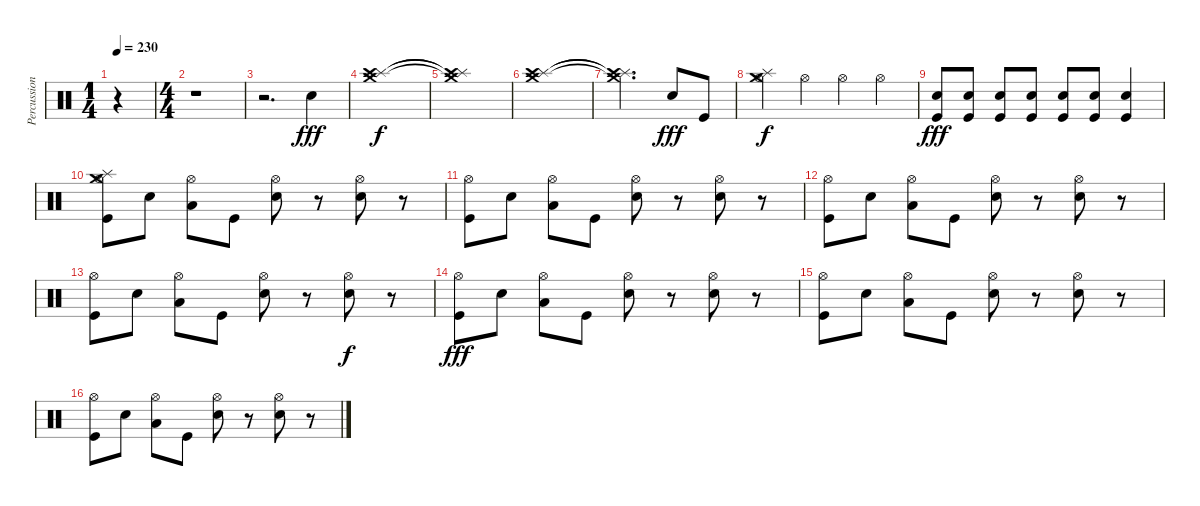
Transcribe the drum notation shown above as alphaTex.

\track ("Percussion" "Percussion") {instrument percussion}
\staff
\articulation defaults
\ts (1 4)
\tempo 230
\tempo 160
\tempo 230
\clef neutral
\ks c
r.4{dy fff} |
\ts (4 4)
r.1 |
r.2{d} "Electric Snare (hit)".4 |
("Crash medium (hit)" "Splash (hit)" "Crash high (hit)").1{dy f} |
("Crash medium (hit)"{t} "Splash (hit)"{t} "Crash high (hit)"{t}).1 |
("Crash medium (hit)" "Splash (hit)" "Crash high (hit)").1 |
("Crash medium (hit)"{t} "Splash (hit)"{t} "Crash high (hit)"{t}).2{d} "Electric Snare (hit)".8{dy fff} "Kick (hit)".8 |
("Crash medium (hit)" "Splash (hit)" "Hi-Hat (open)").4{dy f} "Hi-Hat (open)".4 "Hi-Hat (open)".4 "Hi-Hat (open)".4 |
("Electric Snare (hit)" "Kick (hit)").8{dy fff volume 10} ("Electric Snare (hit)" "Kick (hit)").8{volume 16} ("Electric Snare (hit)" "Kick (hit)").8 ("Electric Snare (hit)" "Kick (hit)").8 ("Electric Snare (hit)" "Kick (hit)").8 ("Electric Snare (hit)" "Kick (hit)").8 ("Electric Snare (hit)" "Kick (hit)").4 |
("Crash medium (hit)" "Splash (hit)" "Hi-Hat (open)" "Kick (hit)").8 "Electric Snare (hit)".8 ("Hi-Hat (open)" "Low Floor Tom (hit)").8 "Kick (hit)".8 ("Hi-Hat (open)" "Electric Snare (hit)").8 r.8 ("Hi-Hat (open)" "Electric Snare (hit)").8 r.8 |
("Hi-Hat (open)" "Kick (hit)").8 "Electric Snare (hit)".8 ("Hi-Hat (open)" "Low Floor Tom (hit)").8 "Kick (hit)".8 ("Hi-Hat (open)" "Electric Snare (hit)").8 r.8 ("Hi-Hat (open)" "Electric Snare (hit)").8 r.8 |
("Hi-Hat (open)" "Kick (hit)").8 "Electric Snare (hit)".8 ("Hi-Hat (open)" "Low Floor Tom (hit)").8 "Kick (hit)".8 ("Hi-Hat (open)" "Electric Snare (hit)").8 r.8 ("Hi-Hat (open)" "Electric Snare (hit)").8 r.8 |
("Hi-Hat (open)" "Kick (hit)").8 "Electric Snare (hit)".8 ("Hi-Hat (open)" "Low Floor Tom (hit)").8 "Kick (hit)".8 ("Hi-Hat (open)" "Electric Snare (hit)").8 r.8 ("Hi-Hat (open)" "Electric Snare (hit)").8{dy f} r.8 |
("Hi-Hat (open)" "Kick (hit)").8{dy fff} "Electric Snare (hit)".8 ("Hi-Hat (open)" "Low Floor Tom (hit)").8 "Kick (hit)".8 ("Hi-Hat (open)" "Electric Snare (hit)").8 r.8 ("Hi-Hat (open)" "Electric Snare (hit)").8 r.8 |
("Hi-Hat (open)" "Kick (hit)").8 "Electric Snare (hit)".8 ("Hi-Hat (open)" "Low Floor Tom (hit)").8 "Kick (hit)".8 ("Hi-Hat (open)" "Electric Snare (hit)").8 r.8 ("Hi-Hat (open)" "Electric Snare (hit)").8 r.8 |
("Hi-Hat (open)" "Kick (hit)").8 "Electric Snare (hit)".8 ("Hi-Hat (open)" "Low Floor Tom (hit)").8 "Kick (hit)".8 ("Hi-Hat (open)" "Electric Snare (hit)").8 r.8 ("Hi-Hat (open)" "Electric Snare (hit)").8 r.8
